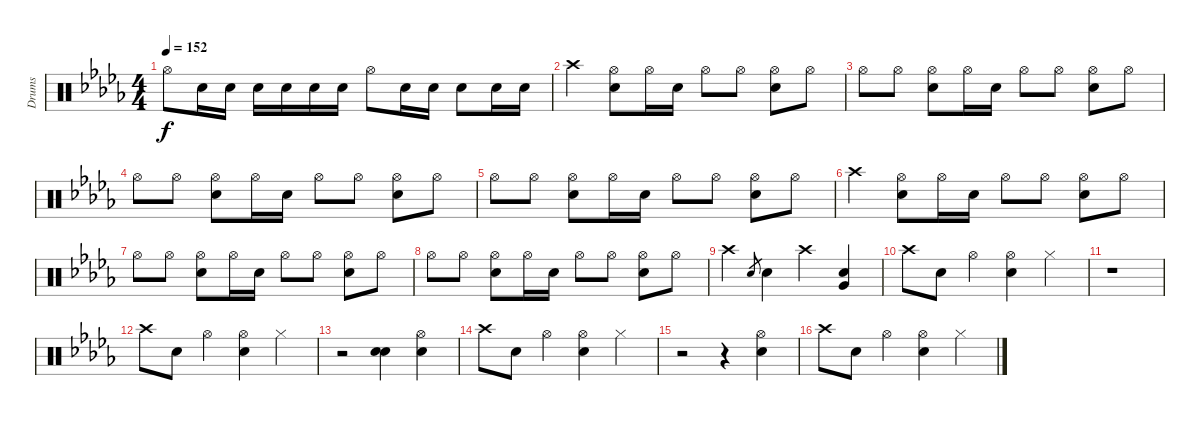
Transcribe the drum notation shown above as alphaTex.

\track ("Drums" "Drums") {instrument percussion}
\staff {score}
\articulation defaults
\ts (4 4)
\tempo 152
\clef neutral
\ks db "Hi-Hat (open)".8{dy f} "Snare (hit) 2".16 "Snare (hit) 2".16 "Snare (hit) 2".16 "Snare (hit) 2".16 "Snare (hit) 2".16 "Snare (hit) 2".16 "Hi-Hat (open)".8 "Snare (hit) 2".16 "Snare (hit) 2".16 "Snare (hit) 2".8 "Snare (hit) 2".16 "Snare (hit) 2".16
|
"Crash high (hit)".4 ("Hi-Hat (open)" "Snare (hit) 2").8 "Hi-Hat (open)".16 "Snare (hit) 2".16 "Hi-Hat (open)".8 "Hi-Hat (open)".8 ("Hi-Hat (open)" "Snare (hit) 2").8 "Hi-Hat (open)".8 |
"Hi-Hat (open)".8 "Hi-Hat (open)".8 ("Hi-Hat (open)" "Snare (hit) 2").8 "Hi-Hat (open)".16 "Snare (hit) 2".16 "Hi-Hat (open)".8 "Hi-Hat (open)".8 ("Hi-Hat (open)" "Snare (hit) 2").8 "Hi-Hat (open)".8 |
"Hi-Hat (open)".8 "Hi-Hat (open)".8 ("Hi-Hat (open)" "Snare (hit) 2").8 "Hi-Hat (open)".16 "Snare (hit) 2".16 "Hi-Hat (open)".8 "Hi-Hat (open)".8 ("Hi-Hat (open)" "Snare (hit) 2").8 "Hi-Hat (open)".8 |
"Hi-Hat (open)".8 "Hi-Hat (open)".8 ("Hi-Hat (open)" "Snare (hit) 2").8 "Hi-Hat (open)".16 "Snare (hit) 2".16 "Hi-Hat (open)".8 "Hi-Hat (open)".8 ("Hi-Hat (open)" "Snare (hit) 2").8 "Hi-Hat (open)".8 |
"Crash high (hit)".4 ("Hi-Hat (open)" "Snare (hit) 2").8 "Hi-Hat (open)".16 "Snare (hit) 2".16 "Hi-Hat (open)".8 "Hi-Hat (open)".8 ("Hi-Hat (open)" "Snare (hit) 2").8 "Hi-Hat (open)".8 |
"Hi-Hat (open)".8 "Hi-Hat (open)".8 ("Hi-Hat (open)" "Snare (hit) 2").8 "Hi-Hat (open)".16 "Snare (hit) 2".16 "Hi-Hat (open)".8 "Hi-Hat (open)".8 ("Hi-Hat (open)" "Snare (hit) 2").8 "Hi-Hat (open)".8 |
"Hi-Hat (open)".8 "Hi-Hat (open)".8 ("Hi-Hat (open)" "Snare (hit) 2").8 "Hi-Hat (open)".16 "Snare (hit) 2".16 "Hi-Hat (open)".8 "Hi-Hat (open)".8 ("Hi-Hat (open)" "Snare (hit) 2").8 "Hi-Hat (open)".8 |
"Crash high (hit)".4 "Snare (hit) 2".8{gr} "Snare (hit) 2".4 "Crash high (hit)".4 ("Snare (hit) 2" "Very Low Tom (hit)").4 |
"Crash high (hit)".8 "Snare (hit) 2".8 "Hi-Hat (open)".4 ("Hi-Hat (open)" "Snare (hit) 2").4 "Hi-Hat (closed)".4 |
r.1 |
"Crash high (hit)".8 "Snare (hit) 2".8 "Hi-Hat (open)".4 ("Hi-Hat (open)" "Snare (hit) 2").4 "Hi-Hat (closed)".4 |
r.2 ("Snare (hit) 2" "Snare (hit) 2").4 ("Hi-Hat (open)" "Snare (hit) 2").4 |
"Crash high (hit)".8 "Snare (hit) 2".8 "Hi-Hat (open)".4 ("Hi-Hat (open)" "Snare (hit) 2").4 "Hi-Hat (closed)".4 |
r.2 r.4 ("Hi-Hat (open)" "Snare (hit) 2").4 |
"Crash high (hit)".8 "Snare (hit) 2".8 "Hi-Hat (open)".4 ("Hi-Hat (open)" "Snare (hit) 2").4 "Hi-Hat (closed)".4
